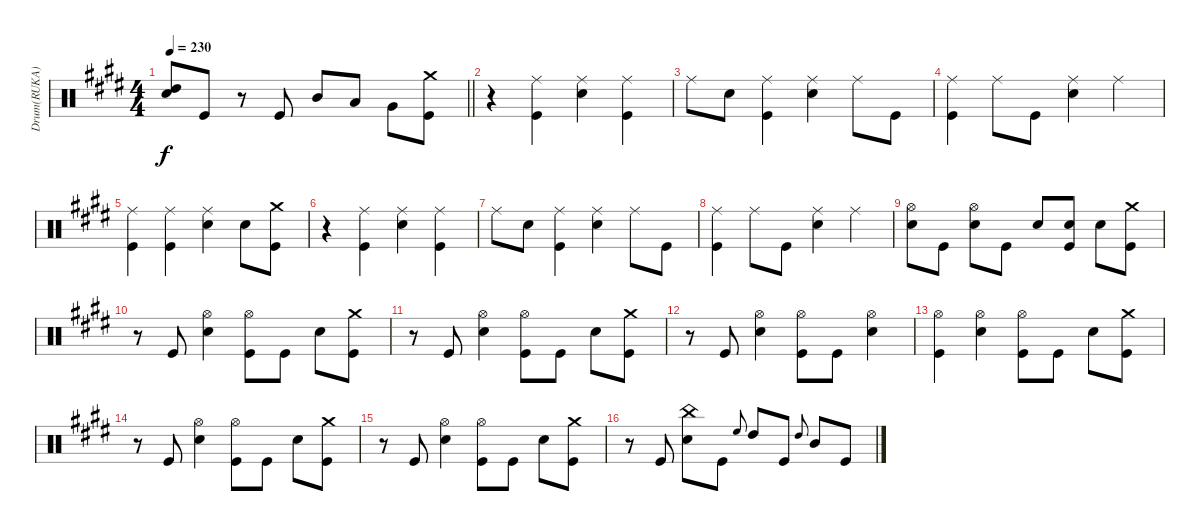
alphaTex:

\track ("Drum(RUKA)" "Drum(RUKA)") {instrument percussion}
\staff {score}
\articulation defaults
\ts (4 4)
\tempo 230
\clef neutral
\barLineRight lightlight
\ks e
("Electric Snare (hit)" "High Tom (hit)").8{dy f} "Kick (hit)".8 r.8 "Kick (hit)".8 "Mid Tom (hit)".8 "Low Tom (hit)".8 "Very Low Tom (hit)".8 ("Crash medium (hit)" "Kick (hit)").8 |
r.4 ("Ride (middle)" "Kick (hit)").4 ("Ride (middle)" "Electric Snare (hit)").4 ("Ride (middle)" "Kick (hit)").4 |
"Ride (middle)".8 "Electric Snare (hit)".8 ("Ride (middle)" "Kick (hit)").4 ("Ride (middle)" "Electric Snare (hit)").4 "Ride (middle)".8 "Kick (hit)".8 |
("Ride (middle)" "Kick (hit)").4 "Ride (middle)".8 "Kick (hit)".8 ("Ride (middle)" "Electric Snare (hit)").4 "Ride (middle)".4 |
("Ride (middle)" "Kick (hit)").4 ("Ride (middle)" "Kick (hit)").4 ("Ride (middle)" "Electric Snare (hit)").4 "Electric Snare (hit)".8 ("Crash medium (hit)" "Kick (hit)").8 |
r.4 ("Ride (middle)" "Kick (hit)").4 ("Ride (middle)" "Electric Snare (hit)").4 ("Ride (middle)" "Kick (hit)").4 |
"Ride (middle)".8 "Electric Snare (hit)".8 ("Ride (middle)" "Kick (hit)").4 ("Ride (middle)" "Electric Snare (hit)").4 "Ride (middle)".8 "Kick (hit)".8 |
("Ride (middle)" "Kick (hit)").4 "Ride (middle)".8 "Kick (hit)".8 ("Ride (middle)" "Electric Snare (hit)").4 "Ride (middle)".4 |
("Hi-Hat (open)" "Electric Snare (hit)").8 "Kick (hit)".8 ("Hi-Hat (open)" "Electric Snare (hit)").8 "Kick (hit)".8 "Electric Snare (hit)".8 ("Electric Snare (hit)" "Kick (hit)").8 "Electric Snare (hit)".8 ("Crash medium (hit)" "Kick (hit)").8 |
r.8 "Kick (hit)".8 ("Hi-Hat (open)" "Electric Snare (hit)").4 ("Hi-Hat (open)" "Kick (hit)").8 "Kick (hit)".8 "Electric Snare (hit)".8 ("Crash medium (hit)" "Kick (hit)").8 |
r.8 "Kick (hit)".8 ("Hi-Hat (open)" "Electric Snare (hit)").4 ("Hi-Hat (open)" "Kick (hit)").8 "Kick (hit)".8 "Electric Snare (hit)".8 ("Crash medium (hit)" "Kick (hit)").8 |
r.8 "Kick (hit)".8 ("Hi-Hat (open)" "Electric Snare (hit)").4 ("Hi-Hat (open)" "Kick (hit)").8 "Kick (hit)".8 ("Hi-Hat (open)" "Electric Snare (hit)").4 |
("Hi-Hat (open)" "Kick (hit)").4 ("Hi-Hat (open)" "Electric Snare (hit)").4 ("Hi-Hat (open)" "Kick (hit)").8 "Kick (hit)".8 "Electric Snare (hit)".8 ("Crash medium (hit)" "Kick (hit)").8 |
r.8 "Kick (hit)".8 ("Hi-Hat (open)" "Electric Snare (hit)").4 ("Hi-Hat (open)" "Kick (hit)").8 "Kick (hit)".8 "Electric Snare (hit)".8 ("Crash medium (hit)" "Kick (hit)").8 |
r.8 "Kick (hit)".8 ("Hi-Hat (open)" "Electric Snare (hit)").4 ("Hi-Hat (open)" "Kick (hit)").8 "Kick (hit)".8 "Electric Snare (hit)".8 ("Crash medium (hit)" "Kick (hit)").8 |
r.8 "Kick (hit)".8 ("China (hit)" "Electric Snare (hit)").8 "Kick (hit)".8 "High Floor Tom (hit)".8{gr onbeat} "High Tom (hit)".8 "Kick (hit)".8 "High Tom (hit)".8{gr onbeat} "Mid Tom (hit)".8 "Kick (hit)".8
